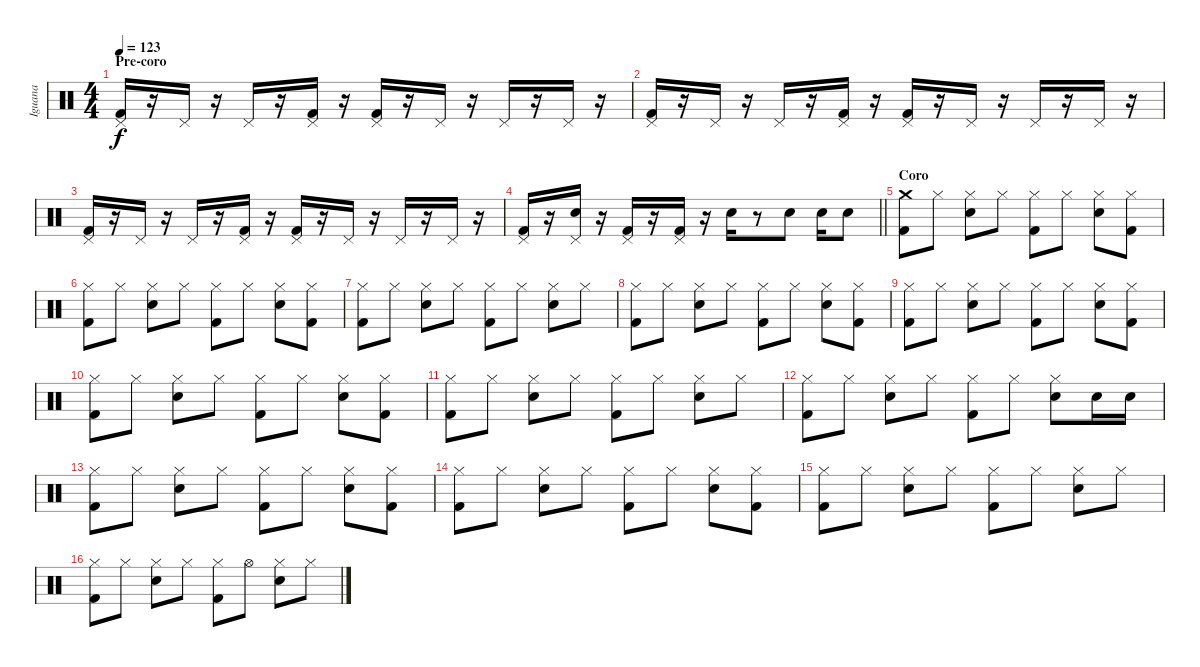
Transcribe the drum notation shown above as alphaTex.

\track ("Iguana" "Iguana") {instrument percussion}
\staff {score}
\articulation defaults
\ts (4 4)
\section ("" "Pre-coro")
\tempo 123
\clef neutral
\ks c
("Pedal Hi-Hat (hit)" "Kick (hit) 2").16{dy f} r.16 "Pedal Hi-Hat (hit)".16 r.16 "Pedal Hi-Hat (hit)".16 r.16 ("Pedal Hi-Hat (hit)" "Kick (hit) 2").16 r.16 ("Pedal Hi-Hat (hit)" "Kick (hit) 2").16 r.16 "Pedal Hi-Hat (hit)".16 r.16 "Pedal Hi-Hat (hit)".16 r.16 "Pedal Hi-Hat (hit)".16 r.16 |
("Pedal Hi-Hat (hit)" "Kick (hit) 2").16 r.16 "Pedal Hi-Hat (hit)".16 r.16 "Pedal Hi-Hat (hit)".16 r.16 ("Pedal Hi-Hat (hit)" "Kick (hit) 2").16 r.16 ("Pedal Hi-Hat (hit)" "Kick (hit) 2").16 r.16 "Pedal Hi-Hat (hit)".16 r.16 "Pedal Hi-Hat (hit)".16 r.16 "Pedal Hi-Hat (hit)".16 r.16 |
("Pedal Hi-Hat (hit)" "Kick (hit) 2").16 r.16 "Pedal Hi-Hat (hit)".16 r.16 "Pedal Hi-Hat (hit)".16 r.16 ("Pedal Hi-Hat (hit)" "Kick (hit) 2").16 r.16 ("Pedal Hi-Hat (hit)" "Kick (hit) 2").16 r.16 "Pedal Hi-Hat (hit)".16 r.16 "Pedal Hi-Hat (hit)".16 r.16 "Pedal Hi-Hat (hit)".16 r.16 |
\barLineRight lightlight
("Pedal Hi-Hat (hit)" "Kick (hit) 2").16 r.16 ("Pedal Hi-Hat (hit)" "Snare (hit) 2").16 r.16 ("Pedal Hi-Hat (hit)" "Kick (hit) 2").16 r.16 ("Pedal Hi-Hat (hit)" "Kick (hit) 2").16 r.16 "Snare (hit) 2".16 r.8 "Snare (hit) 2".8 "Snare (hit) 2".16 "Snare (hit) 2".8 |
\section ("" "Coro")
("Crash medium (hit)" "Kick (hit) 2").8 "Hi-Hat (closed)".8 ("Hi-Hat (closed)" "Snare (hit) 2").8 "Hi-Hat (closed)".8 ("Hi-Hat (closed)" "Kick (hit) 2").8 "Hi-Hat (closed)".8 ("Hi-Hat (closed)" "Snare (hit) 2").8 ("Hi-Hat (closed)" "Kick (hit) 2").8 |
("Hi-Hat (closed)" "Kick (hit) 2").8 "Hi-Hat (closed)".8 ("Hi-Hat (closed)" "Snare (hit) 2").8 "Hi-Hat (closed)".8 ("Hi-Hat (closed)" "Kick (hit) 2").8 "Hi-Hat (closed)".8 ("Hi-Hat (closed)" "Snare (hit) 2").8 ("Hi-Hat (closed)" "Kick (hit) 2").8 |
("Hi-Hat (closed)" "Kick (hit) 2").8 "Hi-Hat (closed)".8 ("Hi-Hat (closed)" "Snare (hit) 2").8 "Hi-Hat (closed)".8 ("Hi-Hat (closed)" "Kick (hit) 2").8 "Hi-Hat (closed)".8 ("Hi-Hat (closed)" "Snare (hit) 2").8 "Hi-Hat (closed)".8 |
("Hi-Hat (closed)" "Kick (hit) 2").8 "Hi-Hat (closed)".8 ("Hi-Hat (closed)" "Snare (hit) 2").8 "Hi-Hat (closed)".8 ("Hi-Hat (closed)" "Kick (hit) 2").8 "Hi-Hat (closed)".8 ("Hi-Hat (closed)" "Snare (hit) 2").8 ("Hi-Hat (closed)" "Kick (hit) 2").8 |
("Hi-Hat (closed)" "Kick (hit) 2").8 "Hi-Hat (closed)".8 ("Hi-Hat (closed)" "Snare (hit) 2").8 "Hi-Hat (closed)".8 ("Hi-Hat (closed)" "Kick (hit) 2").8 "Hi-Hat (closed)".8 ("Hi-Hat (closed)" "Snare (hit) 2").8 ("Hi-Hat (closed)" "Kick (hit) 2").8 |
("Hi-Hat (closed)" "Kick (hit) 2").8 "Hi-Hat (closed)".8 ("Hi-Hat (closed)" "Snare (hit) 2").8 "Hi-Hat (closed)".8 ("Hi-Hat (closed)" "Kick (hit) 2").8 "Hi-Hat (closed)".8 ("Hi-Hat (closed)" "Snare (hit) 2").8 ("Hi-Hat (closed)" "Kick (hit) 2").8 |
("Hi-Hat (closed)" "Kick (hit) 2").8 "Hi-Hat (closed)".8 ("Hi-Hat (closed)" "Snare (hit) 2").8 "Hi-Hat (closed)".8 ("Hi-Hat (closed)" "Kick (hit) 2").8 "Hi-Hat (closed)".8 ("Hi-Hat (closed)" "Snare (hit) 2").8 "Hi-Hat (closed)".8 |
("Hi-Hat (closed)" "Kick (hit) 2").8 "Hi-Hat (closed)".8 ("Hi-Hat (closed)" "Snare (hit) 2").8 "Hi-Hat (closed)".8 ("Hi-Hat (closed)" "Kick (hit) 2").8 "Hi-Hat (closed)".8 ("Hi-Hat (closed)" "Snare (hit) 2").8 "Snare (hit) 2".16 "Snare (hit) 2".16 |
("Hi-Hat (closed)" "Kick (hit) 2").8 "Hi-Hat (closed)".8 ("Hi-Hat (closed)" "Snare (hit) 2").8 "Hi-Hat (closed)".8 ("Hi-Hat (closed)" "Kick (hit) 2").8 "Hi-Hat (closed)".8 ("Hi-Hat (closed)" "Snare (hit) 2").8 ("Hi-Hat (closed)" "Kick (hit) 2").8 |
("Hi-Hat (closed)" "Kick (hit) 2").8 "Hi-Hat (closed)".8 ("Hi-Hat (closed)" "Snare (hit) 2").8 "Hi-Hat (closed)".8 ("Hi-Hat (closed)" "Kick (hit) 2").8 "Hi-Hat (closed)".8 ("Hi-Hat (closed)" "Snare (hit) 2").8 ("Hi-Hat (closed)" "Kick (hit) 2").8 |
("Hi-Hat (closed)" "Kick (hit) 2").8 "Hi-Hat (closed)".8 ("Hi-Hat (closed)" "Snare (hit) 2").8 "Hi-Hat (closed)".8 ("Hi-Hat (closed)" "Kick (hit) 2").8 "Hi-Hat (closed)".8 ("Hi-Hat (closed)" "Snare (hit) 2").8 "Hi-Hat (closed)".8 |
("Hi-Hat (closed)" "Kick (hit) 2").8 "Hi-Hat (closed)".8 ("Hi-Hat (closed)" "Snare (hit) 2").8 "Hi-Hat (closed)".8 ("Hi-Hat (closed)" "Kick (hit) 2").8 "Hi-Hat (open)".8 ("Hi-Hat (closed)" "Snare (hit) 2").8 "Hi-Hat (closed)".8
